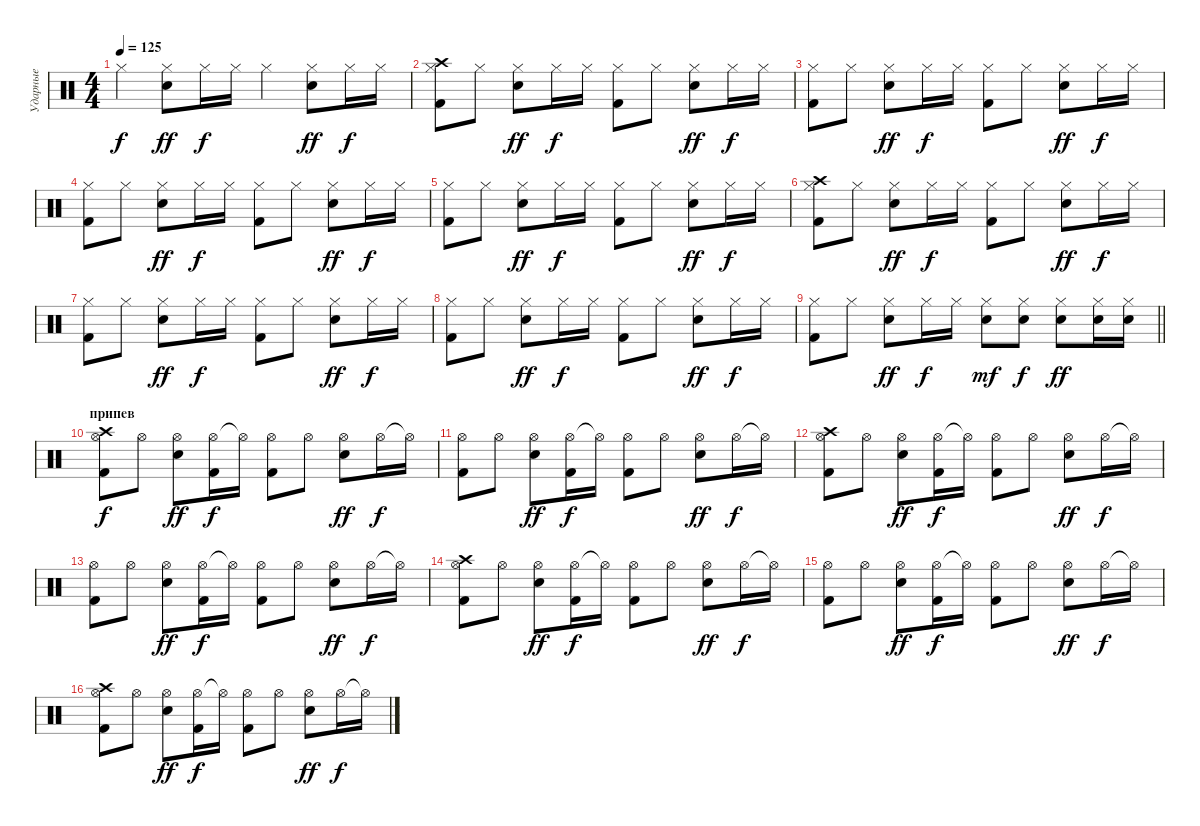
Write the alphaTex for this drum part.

\track ("Ударные" "Ударные") {instrument percussion}
\staff {score}
\articulation defaults
\ts (4 4)
\tempo 125
\clef neutral
\ks c "Hi-Hat (closed)".4{dy f}
("Hi-Hat (closed)" "Electric Snare (hit)").8{dy ff} "Hi-Hat (closed)".16{dy f} "Hi-Hat (closed)".16 "Hi-Hat (closed)".4 ("Hi-Hat (closed)" "Electric Snare (hit)").8{dy ff} "Hi-Hat (closed)".16{dy f} "Hi-Hat (closed)".16 |
("Crash high (hit)" "Hi-Hat (closed)" "Kick (hit) 2").8 "Hi-Hat (closed)".8 ("Hi-Hat (closed)" "Electric Snare (hit)").8{dy ff} "Hi-Hat (closed)".16{dy f} "Hi-Hat (closed)".16 ("Hi-Hat (closed)" "Kick (hit) 2").8 "Hi-Hat (closed)".8 ("Hi-Hat (closed)" "Electric Snare (hit)").8{dy ff} "Hi-Hat (closed)".16{dy f} "Hi-Hat (closed)".16 |
("Hi-Hat (closed)" "Kick (hit) 2").8 "Hi-Hat (closed)".8 ("Hi-Hat (closed)" "Electric Snare (hit)").8{dy ff} "Hi-Hat (closed)".16{dy f} "Hi-Hat (closed)".16 ("Hi-Hat (closed)" "Kick (hit) 2").8 "Hi-Hat (closed)".8 ("Hi-Hat (closed)" "Electric Snare (hit)").8{dy ff} "Hi-Hat (closed)".16{dy f} "Hi-Hat (closed)".16 |
("Hi-Hat (closed)" "Kick (hit) 2").8 "Hi-Hat (closed)".8 ("Hi-Hat (closed)" "Electric Snare (hit)").8{dy ff} "Hi-Hat (closed)".16{dy f} "Hi-Hat (closed)".16 ("Hi-Hat (closed)" "Kick (hit) 2").8 "Hi-Hat (closed)".8 ("Hi-Hat (closed)" "Electric Snare (hit)").8{dy ff} "Hi-Hat (closed)".16{dy f} "Hi-Hat (closed)".16 |
("Hi-Hat (closed)" "Kick (hit) 2").8 "Hi-Hat (closed)".8 ("Hi-Hat (closed)" "Electric Snare (hit)").8{dy ff} "Hi-Hat (closed)".16{dy f} "Hi-Hat (closed)".16 ("Hi-Hat (closed)" "Kick (hit) 2").8 "Hi-Hat (closed)".8 ("Hi-Hat (closed)" "Electric Snare (hit)").8{dy ff} "Hi-Hat (closed)".16{dy f} "Hi-Hat (closed)".16 |
("Crash high (hit)" "Hi-Hat (closed)" "Kick (hit) 2").8 "Hi-Hat (closed)".8 ("Hi-Hat (closed)" "Electric Snare (hit)").8{dy ff} "Hi-Hat (closed)".16{dy f} "Hi-Hat (closed)".16 ("Hi-Hat (closed)" "Kick (hit) 2").8 "Hi-Hat (closed)".8 ("Hi-Hat (closed)" "Electric Snare (hit)").8{dy ff} "Hi-Hat (closed)".16{dy f} "Hi-Hat (closed)".16 |
("Hi-Hat (closed)" "Kick (hit) 2").8 "Hi-Hat (closed)".8 ("Hi-Hat (closed)" "Electric Snare (hit)").8{dy ff} "Hi-Hat (closed)".16{dy f} "Hi-Hat (closed)".16 ("Hi-Hat (closed)" "Kick (hit) 2").8 "Hi-Hat (closed)".8 ("Hi-Hat (closed)" "Electric Snare (hit)").8{dy ff} "Hi-Hat (closed)".16{dy f} "Hi-Hat (closed)".16 |
("Hi-Hat (closed)" "Kick (hit) 2").8 "Hi-Hat (closed)".8 ("Hi-Hat (closed)" "Electric Snare (hit)").8{dy ff} "Hi-Hat (closed)".16{dy f} "Hi-Hat (closed)".16 ("Hi-Hat (closed)" "Kick (hit) 2").8 "Hi-Hat (closed)".8 ("Hi-Hat (closed)" "Electric Snare (hit)").8{dy ff} "Hi-Hat (closed)".16{dy f} "Hi-Hat (closed)".16 |
\barLineRight lightlight
("Hi-Hat (closed)" "Kick (hit) 2").8 "Hi-Hat (closed)".8 ("Hi-Hat (closed)" "Electric Snare (hit)").8{dy ff} "Hi-Hat (closed)".16{dy f} "Hi-Hat (closed)".16 ("Hi-Hat (closed)" "Electric Snare (hit)").8{dy mf} ("Hi-Hat (closed)" "Electric Snare (hit)").8{dy f} ("Hi-Hat (closed)" "Electric Snare (hit)").8{dy ff} ("Hi-Hat (closed)" "Electric Snare (hit)").16 ("Hi-Hat (closed)" "Electric Snare (hit)").16 |
\section ("" "припев")
("Crash high (hit)" "Hi-Hat (open)" "Kick (hit) 2").8{dy f} "Hi-Hat (open)".8 ("Hi-Hat (open)" "Electric Snare (hit)").8{dy ff} ("Hi-Hat (open)" "Kick (hit) 2").16{dy f} "Hi-Hat (open)"{t}.16 ("Hi-Hat (open)" "Kick (hit) 2").8 "Hi-Hat (open)".8 ("Hi-Hat (open)" "Electric Snare (hit)").8{dy ff} "Hi-Hat (open)".16{dy f} "Hi-Hat (open)"{t}.16 |
("Hi-Hat (open)" "Kick (hit) 2").8 "Hi-Hat (open)".8 ("Hi-Hat (open)" "Electric Snare (hit)").8{dy ff} ("Hi-Hat (open)" "Kick (hit) 2").16{dy f} "Hi-Hat (open)"{t}.16 ("Hi-Hat (open)" "Kick (hit) 2").8 "Hi-Hat (open)".8 ("Hi-Hat (open)" "Electric Snare (hit)").8{dy ff} "Hi-Hat (open)".16{dy f} "Hi-Hat (open)"{t}.16 |
("Crash high (hit)" "Hi-Hat (open)" "Kick (hit) 2").8 "Hi-Hat (open)".8 ("Hi-Hat (open)" "Electric Snare (hit)").8{dy ff} ("Hi-Hat (open)" "Kick (hit) 2").16{dy f} "Hi-Hat (open)"{t}.16 ("Hi-Hat (open)" "Kick (hit) 2").8 "Hi-Hat (open)".8 ("Hi-Hat (open)" "Electric Snare (hit)").8{dy ff} "Hi-Hat (open)".16{dy f} "Hi-Hat (open)"{t}.16 |
("Hi-Hat (open)" "Kick (hit) 2").8 "Hi-Hat (open)".8 ("Hi-Hat (open)" "Electric Snare (hit)").8{dy ff} ("Hi-Hat (open)" "Kick (hit) 2").16{dy f} "Hi-Hat (open)"{t}.16 ("Hi-Hat (open)" "Kick (hit) 2").8 "Hi-Hat (open)".8 ("Hi-Hat (open)" "Electric Snare (hit)").8{dy ff} "Hi-Hat (open)".16{dy f} "Hi-Hat (open)"{t}.16 |
("Crash high (hit)" "Hi-Hat (open)" "Kick (hit) 2").8 "Hi-Hat (open)".8 ("Hi-Hat (open)" "Electric Snare (hit)").8{dy ff} ("Hi-Hat (open)" "Kick (hit) 2").16{dy f} "Hi-Hat (open)"{t}.16 ("Hi-Hat (open)" "Kick (hit) 2").8 "Hi-Hat (open)".8 ("Hi-Hat (open)" "Electric Snare (hit)").8{dy ff} "Hi-Hat (open)".16{dy f} "Hi-Hat (open)"{t}.16 |
("Hi-Hat (open)" "Kick (hit) 2").8 "Hi-Hat (open)".8 ("Hi-Hat (open)" "Electric Snare (hit)").8{dy ff} ("Hi-Hat (open)" "Kick (hit) 2").16{dy f} "Hi-Hat (open)"{t}.16 ("Hi-Hat (open)" "Kick (hit) 2").8 "Hi-Hat (open)".8 ("Hi-Hat (open)" "Electric Snare (hit)").8{dy ff} "Hi-Hat (open)".16{dy f} "Hi-Hat (open)"{t}.16 |
("Crash high (hit)" "Hi-Hat (open)" "Kick (hit) 2").8 "Hi-Hat (open)".8 ("Hi-Hat (open)" "Electric Snare (hit)").8{dy ff} ("Hi-Hat (open)" "Kick (hit) 2").16{dy f} "Hi-Hat (open)"{t}.16 ("Hi-Hat (open)" "Kick (hit) 2").8 "Hi-Hat (open)".8 ("Hi-Hat (open)" "Electric Snare (hit)").8{dy ff} "Hi-Hat (open)".16{dy f} "Hi-Hat (open)"{t}.16
